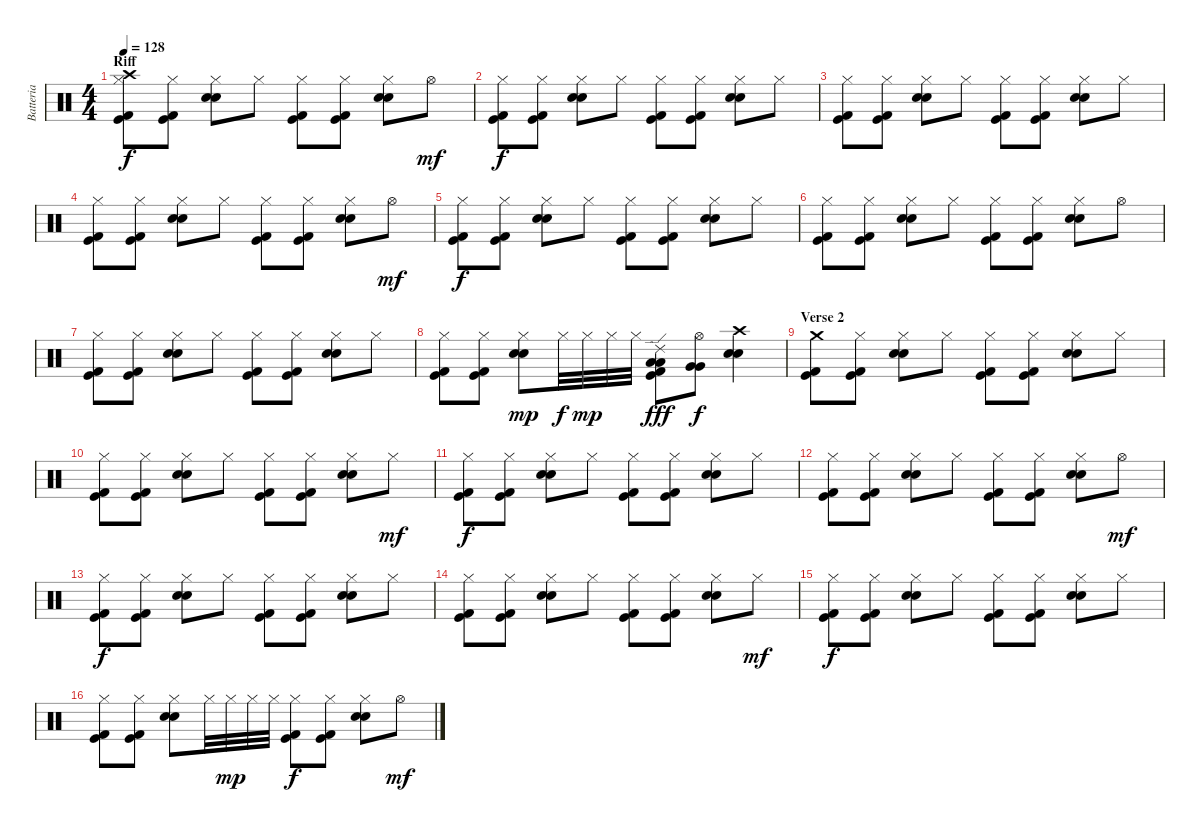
\track ("Batteria" "Batteria") {instrument percussion}
\staff {score}
\articulation defaults
\ts (4 4)
\section ("" "Riff")
\tempo 128
\clef neutral
\ks c
("Hi-Hat (closed)" "Crash high (hit)" "Kick (hit) 2" "Kick (hit)").8{dy f} ("Hi-Hat (closed)" "Kick (hit) 2" "Kick (hit)").8 ("Hi-Hat (closed)" "Electric Snare (hit)" "Electric Snare (hit)").8 "Hi-Hat (closed)".8 ("Hi-Hat (closed)" "Kick (hit) 2" "Kick (hit)").8 ("Hi-Hat (closed)" "Kick (hit) 2" "Kick (hit)").8 ("Hi-Hat (closed)" "Electric Snare (hit)" "Electric Snare (hit)").8 "Hi-Hat (open)".8{dy mf} |
("Hi-Hat (closed)" "Kick (hit) 2" "Kick (hit)").8{dy f} ("Hi-Hat (closed)" "Kick (hit) 2" "Kick (hit)").8 ("Hi-Hat (closed)" "Electric Snare (hit)" "Electric Snare (hit)").8 "Hi-Hat (closed)".8 ("Hi-Hat (closed)" "Kick (hit) 2" "Kick (hit)").8 ("Hi-Hat (closed)" "Kick (hit) 2" "Kick (hit)").8 ("Hi-Hat (closed)" "Electric Snare (hit)" "Electric Snare (hit)").8 "Hi-Hat (closed)".8 |
("Hi-Hat (closed)" "Kick (hit) 2" "Kick (hit)").8 ("Hi-Hat (closed)" "Kick (hit) 2" "Kick (hit)").8 ("Hi-Hat (closed)" "Electric Snare (hit)" "Electric Snare (hit)").8 "Hi-Hat (closed)".8 ("Hi-Hat (closed)" "Kick (hit) 2" "Kick (hit)").8 ("Hi-Hat (closed)" "Kick (hit) 2" "Kick (hit)").8 ("Hi-Hat (closed)" "Electric Snare (hit)" "Electric Snare (hit)").8 "Hi-Hat (closed)".8 |
("Hi-Hat (closed)" "Kick (hit) 2" "Kick (hit)").8 ("Hi-Hat (closed)" "Kick (hit) 2" "Kick (hit)").8 ("Hi-Hat (closed)" "Electric Snare (hit)" "Electric Snare (hit)").8 "Hi-Hat (closed)".8 ("Hi-Hat (closed)" "Kick (hit) 2" "Kick (hit)").8 ("Hi-Hat (closed)" "Kick (hit) 2" "Kick (hit)").8 ("Hi-Hat (closed)" "Electric Snare (hit)" "Electric Snare (hit)").8 "Hi-Hat (open)".8{dy mf} |
("Hi-Hat (closed)" "Kick (hit) 2" "Kick (hit)").8{dy f} ("Hi-Hat (closed)" "Kick (hit) 2" "Kick (hit)").8 ("Hi-Hat (closed)" "Electric Snare (hit)" "Electric Snare (hit)").8 "Hi-Hat (closed)".8 ("Hi-Hat (closed)" "Kick (hit) 2" "Kick (hit)").8 ("Hi-Hat (closed)" "Kick (hit) 2" "Kick (hit)").8 ("Hi-Hat (closed)" "Electric Snare (hit)" "Electric Snare (hit)").8 "Hi-Hat (closed)".8 |
("Hi-Hat (closed)" "Kick (hit) 2" "Kick (hit)").8 ("Hi-Hat (closed)" "Kick (hit) 2" "Kick (hit)").8 ("Hi-Hat (closed)" "Electric Snare (hit)" "Electric Snare (hit)").8 "Hi-Hat (closed)".8 ("Hi-Hat (closed)" "Kick (hit) 2" "Kick (hit)").8 ("Hi-Hat (closed)" "Kick (hit) 2" "Kick (hit)").8 ("Hi-Hat (closed)" "Electric Snare (hit)" "Electric Snare (hit)").8 "Hi-Hat (open)".8 |
("Hi-Hat (closed)" "Kick (hit) 2" "Kick (hit)").8 ("Hi-Hat (closed)" "Kick (hit) 2" "Kick (hit)").8 ("Hi-Hat (closed)" "Electric Snare (hit)" "Electric Snare (hit)").8 "Hi-Hat (closed)".8 ("Hi-Hat (closed)" "Kick (hit) 2" "Kick (hit)").8 ("Hi-Hat (closed)" "Kick (hit) 2" "Kick (hit)").8 ("Hi-Hat (closed)" "Electric Snare (hit)" "Electric Snare (hit)").8 "Hi-Hat (closed)".8 |
("Hi-Hat (closed)" "Kick (hit) 2" "Kick (hit)").8 ("Hi-Hat (closed)" "Kick (hit) 2" "Kick (hit)").8 ("Hi-Hat (closed)" "Electric Snare (hit)" "Electric Snare (hit)").8{dy mp} "Hi-Hat (closed)".32{dy f} "Hi-Hat (closed)".32{dy mp} "Hi-Hat (closed)".32 "Hi-Hat (closed)".32 ("Ride (edge) 2" "Low Tom (hit)" "Low Tom (hit)" "Kick (hit) 2" "Kick (hit)").8{dy fff} ("Hi-Hat (open)" "Very Low Tom (hit)" "Very Low Tom (hit)").8{dy f} ("Crash high (hit)" "Electric Snare (hit)" "Electric Snare (hit)").4 |
\section ("" "Verse 2")
("Crash medium (hit)" "Kick (hit) 2" "Kick (hit)").8 ("Hi-Hat (closed)" "Kick (hit) 2" "Kick (hit)").8 ("Hi-Hat (closed)" "Electric Snare (hit)" "Electric Snare (hit)").8 "Hi-Hat (closed)".8 ("Hi-Hat (closed)" "Kick (hit) 2" "Kick (hit)").8 ("Hi-Hat (closed)" "Kick (hit) 2" "Kick (hit)").8 ("Hi-Hat (closed)" "Electric Snare (hit)" "Electric Snare (hit)").8 "Hi-Hat (closed)".8 |
("Hi-Hat (closed)" "Kick (hit) 2" "Kick (hit)").8 ("Hi-Hat (closed)" "Kick (hit) 2" "Kick (hit)").8 ("Hi-Hat (closed)" "Electric Snare (hit)" "Electric Snare (hit)").8 "Hi-Hat (closed)".8 ("Hi-Hat (closed)" "Kick (hit) 2" "Kick (hit)").8 ("Hi-Hat (closed)" "Kick (hit) 2" "Kick (hit)").8 ("Hi-Hat (closed)" "Electric Snare (hit)" "Electric Snare (hit)").8 "Hi-Hat (closed)".8{dy mf} |
("Hi-Hat (closed)" "Kick (hit) 2" "Kick (hit)").8{dy f} ("Hi-Hat (closed)" "Kick (hit) 2" "Kick (hit)").8 ("Hi-Hat (closed)" "Electric Snare (hit)" "Electric Snare (hit)").8 "Hi-Hat (closed)".8 ("Hi-Hat (closed)" "Kick (hit) 2" "Kick (hit)").8 ("Hi-Hat (closed)" "Kick (hit) 2" "Kick (hit)").8 ("Hi-Hat (closed)" "Electric Snare (hit)" "Electric Snare (hit)").8 "Hi-Hat (closed)".8 |
("Hi-Hat (closed)" "Kick (hit) 2" "Kick (hit)").8 ("Hi-Hat (closed)" "Kick (hit) 2" "Kick (hit)").8 ("Hi-Hat (closed)" "Electric Snare (hit)" "Electric Snare (hit)").8 "Hi-Hat (closed)".8 ("Hi-Hat (closed)" "Kick (hit) 2" "Kick (hit)").8 ("Hi-Hat (closed)" "Kick (hit) 2" "Kick (hit)").8 ("Hi-Hat (closed)" "Electric Snare (hit)" "Electric Snare (hit)").8 "Hi-Hat (open)".8{dy mf} |
("Hi-Hat (closed)" "Kick (hit) 2" "Kick (hit)").8{dy f} ("Hi-Hat (closed)" "Kick (hit) 2" "Kick (hit)").8 ("Hi-Hat (closed)" "Electric Snare (hit)" "Electric Snare (hit)").8 "Hi-Hat (closed)".8 ("Hi-Hat (closed)" "Kick (hit) 2" "Kick (hit)").8 ("Hi-Hat (closed)" "Kick (hit) 2" "Kick (hit)").8 ("Hi-Hat (closed)" "Electric Snare (hit)" "Electric Snare (hit)").8 "Hi-Hat (closed)".8 |
("Hi-Hat (closed)" "Kick (hit) 2" "Kick (hit)").8 ("Hi-Hat (closed)" "Kick (hit) 2" "Kick (hit)").8 ("Hi-Hat (closed)" "Electric Snare (hit)" "Electric Snare (hit)").8 "Hi-Hat (closed)".8 ("Hi-Hat (closed)" "Kick (hit) 2" "Kick (hit)").8 ("Hi-Hat (closed)" "Kick (hit) 2" "Kick (hit)").8 ("Hi-Hat (closed)" "Electric Snare (hit)" "Electric Snare (hit)").8 "Hi-Hat (closed)".8{dy mf} |
("Hi-Hat (closed)" "Kick (hit) 2" "Kick (hit)").8{dy f} ("Hi-Hat (closed)" "Kick (hit) 2" "Kick (hit)").8 ("Hi-Hat (closed)" "Electric Snare (hit)" "Electric Snare (hit)").8 "Hi-Hat (closed)".8 ("Hi-Hat (closed)" "Kick (hit) 2" "Kick (hit)").8 ("Hi-Hat (closed)" "Kick (hit) 2" "Kick (hit)").8 ("Hi-Hat (closed)" "Electric Snare (hit)" "Electric Snare (hit)").8 "Hi-Hat (closed)".8 |
("Hi-Hat (closed)" "Kick (hit) 2" "Kick (hit)").8 ("Hi-Hat (closed)" "Kick (hit) 2" "Kick (hit)").8 ("Hi-Hat (closed)" "Electric Snare (hit)" "Electric Snare (hit)").8 "Hi-Hat (closed)".32 "Hi-Hat (closed)".32{dy mp} "Hi-Hat (closed)".32 "Hi-Hat (closed)".32 ("Hi-Hat (closed)" "Kick (hit) 2" "Kick (hit)").8{dy f} ("Hi-Hat (closed)" "Kick (hit) 2" "Kick (hit)").8 ("Hi-Hat (closed)" "Electric Snare (hit)" "Electric Snare (hit)").8 "Hi-Hat (open)".8{dy mf}
